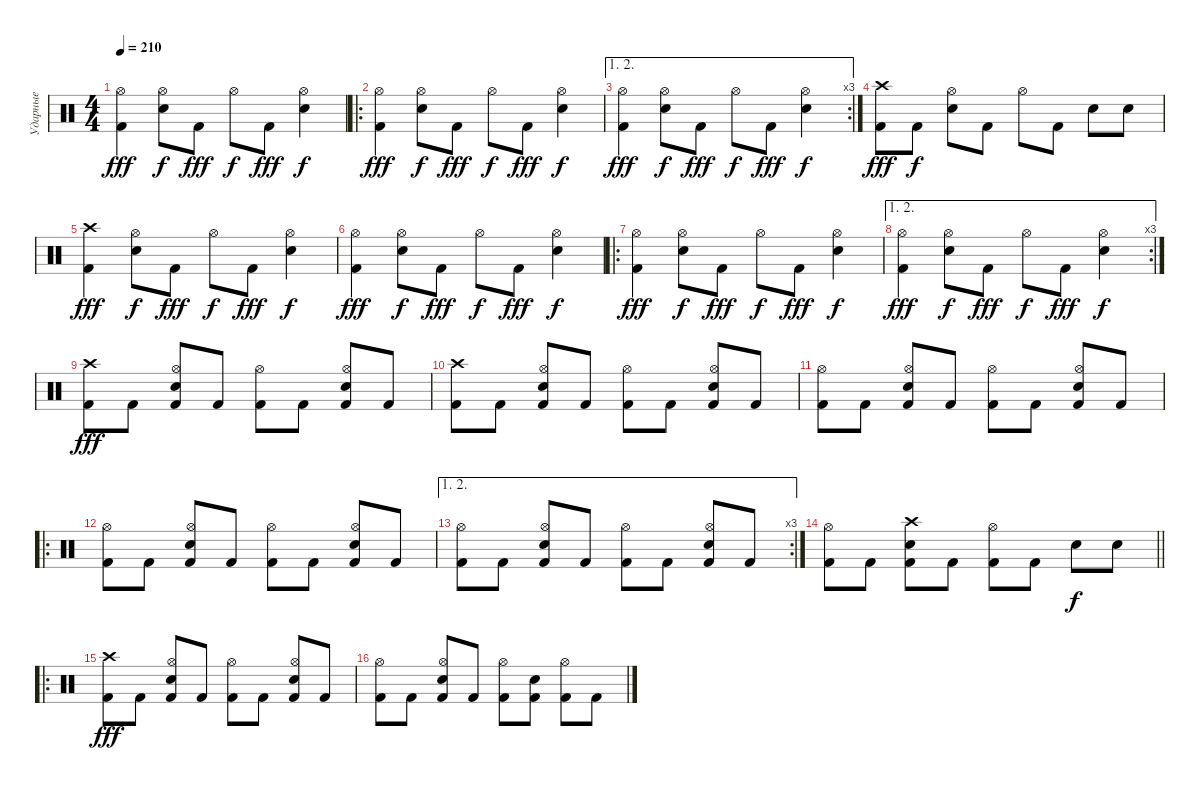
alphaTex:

\track ("Ударные" "Ударные") {instrument percussion}
\staff {score}
\articulation defaults
\ts (4 4)
\tempo 210
\clef neutral
\ks c
("Kick (hit) 2" "Hi-Hat (open)").4{dy fff} ("Snare (hit) 2" "Hi-Hat (open)").8{dy f} "Kick (hit) 2".8{dy fff} "Hi-Hat (open)".8{dy f} "Kick (hit) 2".8{dy fff} ("Snare (hit) 2" "Hi-Hat (open)").4{dy f} |
\ro
("Kick (hit) 2" "Hi-Hat (open)").4{dy fff} ("Snare (hit) 2" "Hi-Hat (open)").8{dy f} "Kick (hit) 2".8{dy fff} "Hi-Hat (open)".8{dy f} "Kick (hit) 2".8{dy fff} ("Snare (hit) 2" "Hi-Hat (open)").4{dy f} |
\ae (1 2)
\rc 3
("Kick (hit) 2" "Hi-Hat (open)").4{dy fff} ("Snare (hit) 2" "Hi-Hat (open)").8{dy f} "Kick (hit) 2".8{dy fff} "Hi-Hat (open)".8{dy f} "Kick (hit) 2".8{dy fff} ("Snare (hit) 2" "Hi-Hat (open)").4{dy f} |
("Kick (hit) 2" "Crash high (hit)").8{dy fff} "Kick (hit) 2".8{dy f} ("Snare (hit) 2" "Hi-Hat (open)").8 "Kick (hit) 2".8 "Hi-Hat (open)".8 "Kick (hit) 2".8 "Snare (hit) 2".8 "Snare (hit) 2".8 |
("Kick (hit) 2" "Crash high (hit)").4{dy fff} ("Snare (hit) 2" "Hi-Hat (open)").8{dy f} "Kick (hit) 2".8{dy fff} "Hi-Hat (open)".8{dy f} "Kick (hit) 2".8{dy fff} ("Snare (hit) 2" "Hi-Hat (open)").4{dy f} |
("Kick (hit) 2" "Hi-Hat (open)").4{dy fff} ("Snare (hit) 2" "Hi-Hat (open)").8{dy f} "Kick (hit) 2".8{dy fff} "Hi-Hat (open)".8{dy f} "Kick (hit) 2".8{dy fff} ("Snare (hit) 2" "Hi-Hat (open)").4{dy f} |
\ro
("Kick (hit) 2" "Hi-Hat (open)").4{dy fff} ("Snare (hit) 2" "Hi-Hat (open)").8{dy f} "Kick (hit) 2".8{dy fff} "Hi-Hat (open)".8{dy f} "Kick (hit) 2".8{dy fff} ("Snare (hit) 2" "Hi-Hat (open)").4{dy f} |
\ae (1 2)
\rc 3
("Kick (hit) 2" "Hi-Hat (open)").4{dy fff} ("Snare (hit) 2" "Hi-Hat (open)").8{dy f} "Kick (hit) 2".8{dy fff} "Hi-Hat (open)".8{dy f} "Kick (hit) 2".8{dy fff} ("Snare (hit) 2" "Hi-Hat (open)").4{dy f} |
("Kick (hit) 2" "Crash high (hit)").8{dy fff} "Kick (hit) 2".8 ("Kick (hit) 2" "Snare (hit) 2" "Hi-Hat (open)").8 "Kick (hit) 2".8 ("Kick (hit) 2" "Hi-Hat (open)").8 "Kick (hit) 2".8 ("Kick (hit) 2" "Snare (hit) 2" "Hi-Hat (open)").8 "Kick (hit) 2".8 |
("Kick (hit) 2" "Crash high (hit)").8 "Kick (hit) 2".8 ("Kick (hit) 2" "Snare (hit) 2" "Hi-Hat (open)").8 "Kick (hit) 2".8 ("Kick (hit) 2" "Hi-Hat (open)").8 "Kick (hit) 2".8 ("Kick (hit) 2" "Snare (hit) 2" "Hi-Hat (open)").8 "Kick (hit) 2".8 |
("Kick (hit) 2" "Hi-Hat (open)").8 "Kick (hit) 2".8 ("Kick (hit) 2" "Snare (hit) 2" "Hi-Hat (open)").8 "Kick (hit) 2".8 ("Kick (hit) 2" "Hi-Hat (open)").8 "Kick (hit) 2".8 ("Kick (hit) 2" "Snare (hit) 2" "Hi-Hat (open)").8 "Kick (hit) 2".8 |
\ro
("Kick (hit) 2" "Hi-Hat (open)").8 "Kick (hit) 2".8 ("Kick (hit) 2" "Snare (hit) 2" "Hi-Hat (open)").8 "Kick (hit) 2".8 ("Kick (hit) 2" "Hi-Hat (open)").8 "Kick (hit) 2".8 ("Kick (hit) 2" "Snare (hit) 2" "Hi-Hat (open)").8 "Kick (hit) 2".8 |
\ae (1 2)
\rc 3
("Kick (hit) 2" "Hi-Hat (open)").8 "Kick (hit) 2".8 ("Kick (hit) 2" "Snare (hit) 2" "Hi-Hat (open)").8 "Kick (hit) 2".8 ("Kick (hit) 2" "Hi-Hat (open)").8 "Kick (hit) 2".8 ("Kick (hit) 2" "Snare (hit) 2" "Hi-Hat (open)").8 "Kick (hit) 2".8 |
\barLineRight lightlight
("Kick (hit) 2" "Hi-Hat (open)").8 "Kick (hit) 2".8 ("Kick (hit) 2" "Snare (hit) 2" "Crash high (hit)").8 "Kick (hit) 2".8 ("Kick (hit) 2" "Hi-Hat (open)").8 "Kick (hit) 2".8 "Snare (hit) 2".8{dy f} "Snare (hit) 2".8 |
\ro
("Kick (hit) 2" "Crash high (hit)").8{dy fff} "Kick (hit) 2".8 ("Kick (hit) 2" "Snare (hit) 2" "Hi-Hat (open)").8 "Kick (hit) 2".8 ("Kick (hit) 2" "Hi-Hat (open)").8 "Kick (hit) 2".8 ("Kick (hit) 2" "Snare (hit) 2" "Hi-Hat (open)").8 "Kick (hit) 2".8 |
("Kick (hit) 2" "Hi-Hat (open)").8 "Kick (hit) 2".8 ("Kick (hit) 2" "Snare (hit) 2" "Hi-Hat (open)").8 "Kick (hit) 2".8 ("Kick (hit) 2" "Hi-Hat (open)").8 ("Kick (hit) 2" "Snare (hit) 2").8 ("Kick (hit) 2" "Hi-Hat (open)").8 "Kick (hit) 2".8
